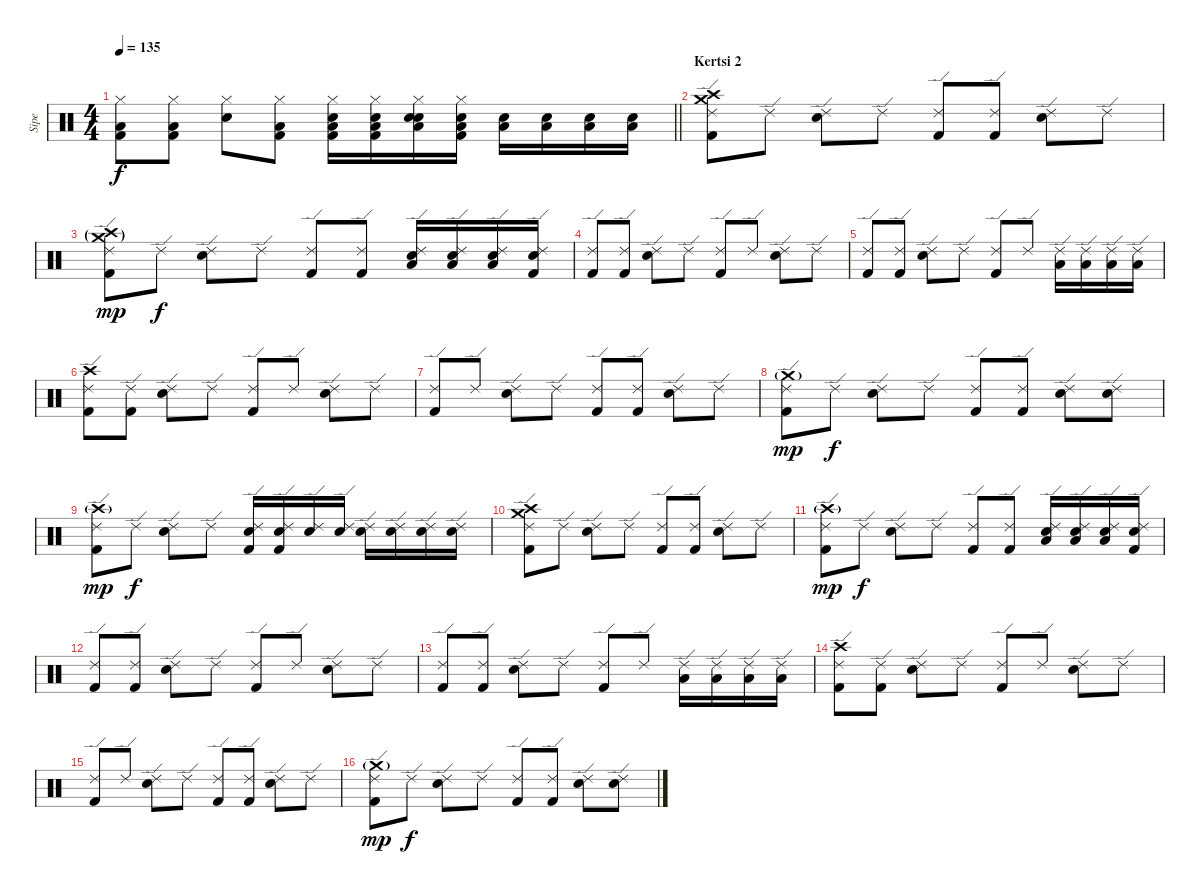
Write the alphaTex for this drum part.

\track ("Sipe" "Sipe") {instrument percussion}
\staff {score}
\articulation defaults
\ts (4 4)
\tempo 135
\clef neutral
\barLineRight lightlight
\ks c
("Low Tom (hit)" "Kick (hit) 2" "Hi-Hat (closed)").8{dy f} ("Low Tom (hit)" "Kick (hit) 2" "Hi-Hat (closed)").8 ("Snare (hit) 2" "Hi-Hat (closed)").8 ("Low Tom (hit)" "Kick (hit) 2" "Hi-Hat (closed)").8 ("Low Tom (hit)" "Kick (hit) 2" "Hi-Hat (closed)" "Snare (hit) 2").16 ("Low Tom (hit)" "Kick (hit) 2" "Hi-Hat (closed)" "Snare (hit) 2").16 ("Low Tom (hit)" "Snare (hit) 2" "Hi-Hat (closed)" "Snare (hit) 2").16 ("Low Tom (hit)" "Kick (hit) 2" "Hi-Hat (closed)" "Snare (hit) 2").16 ("Low Tom (hit)" "Snare (hit) 2").16 ("Low Tom (hit)" "Snare (hit) 2").16 ("Low Tom (hit)" "Snare (hit) 2").16 ("Low Tom (hit)" "Snare (hit) 2").16 |
\section ("" "Kertsi 2")
("Kick (hit) 2" "Ride (edge) 2" "Crash high (hit)" "Crash medium (hit)").8 "Ride (edge) 2".8 ("Snare (hit) 2" "Ride (edge) 2").8 "Ride (edge) 2".8 ("Kick (hit) 2" "Ride (edge) 2").8 ("Kick (hit) 2" "Ride (edge) 2").8 ("Snare (hit) 2" "Ride (edge) 2").8 "Ride (edge) 2".8 |
("Kick (hit) 2" "Ride (edge) 2" "Crash high (hit)"{g} "Crash medium (hit)"{g}).8{dy mp} "Ride (edge) 2".8{dy f} ("Snare (hit) 2" "Ride (edge) 2").8 "Ride (edge) 2".8 ("Kick (hit) 2" "Ride (edge) 2").8 ("Kick (hit) 2" "Ride (edge) 2").8 ("Snare (hit) 2" "Ride (edge) 2" "Low Tom (hit)").16 ("Snare (hit) 2" "Ride (edge) 2" "Low Tom (hit)").16 ("Snare (hit) 2" "Ride (edge) 2" "Low Tom (hit)").16 ("Snare (hit) 2" "Ride (edge) 2" "Kick (hit) 2").16 |
("Kick (hit) 2" "Ride (edge) 2").8 ("Kick (hit) 2" "Ride (edge) 2").8 ("Snare (hit) 2" "Ride (edge) 2").8 "Ride (edge) 2".8 ("Kick (hit) 2" "Ride (edge) 2").8 "Ride (edge) 2".8 ("Snare (hit) 2" "Ride (edge) 2").8 "Ride (edge) 2".8 |
("Kick (hit) 2" "Ride (edge) 2").8 ("Kick (hit) 2" "Ride (edge) 2").8 ("Snare (hit) 2" "Ride (edge) 2").8 "Ride (edge) 2".8 ("Kick (hit) 2" "Ride (edge) 2").8 "Ride (edge) 2".8 ("Low Tom (hit)" "Ride (edge) 2").16 ("Low Tom (hit)" "Ride (edge) 2").16 ("Low Tom (hit)" "Ride (edge) 2").16 ("Low Tom (hit)" "Ride (edge) 2").16 |
("Crash high (hit)" "Kick (hit) 2" "Ride (edge) 2").8 ("Kick (hit) 2" "Ride (edge) 2").8 ("Snare (hit) 2" "Ride (edge) 2").8 "Ride (edge) 2".8 ("Kick (hit) 2" "Ride (edge) 2").8 "Ride (edge) 2".8 ("Snare (hit) 2" "Ride (edge) 2").8 "Ride (edge) 2".8 |
("Kick (hit) 2" "Ride (edge) 2").8 "Ride (edge) 2".8 ("Snare (hit) 2" "Ride (edge) 2").8 "Ride (edge) 2".8 ("Kick (hit) 2" "Ride (edge) 2").8 ("Kick (hit) 2" "Ride (edge) 2").8 ("Snare (hit) 2" "Ride (edge) 2").8 "Ride (edge) 2".8 |
("Crash medium (hit)"{g} "Kick (hit) 2" "Ride (edge) 2").8{dy mp} "Ride (edge) 2".8{dy f} ("Snare (hit) 2" "Ride (edge) 2").8 "Ride (edge) 2".8 ("Kick (hit) 2" "Ride (edge) 2").8 ("Kick (hit) 2" "Ride (edge) 2").8 ("Snare (hit) 2" "Ride (edge) 2").8 ("Snare (hit) 2" "Ride (edge) 2").8 |
("Crash high (hit)"{g} "Kick (hit) 2" "Ride (edge) 2").8{dy mp} "Ride (edge) 2".8{dy f} ("Snare (hit) 2" "Ride (edge) 2").8 "Ride (edge) 2".8 ("Kick (hit) 2" "Ride (edge) 2" "Snare (hit) 2").16 ("Kick (hit) 2" "Ride (edge) 2" "Snare (hit) 2").16 ("Ride (edge) 2" "Snare (hit) 2").16 ("Ride (edge) 2" "Snare (hit) 2").16 ("Ride (edge) 2" "Snare (hit) 2").16 ("Ride (edge) 2" "Snare (hit) 2").16 ("Ride (edge) 2" "Snare (hit) 2").16 ("Ride (edge) 2" "Snare (hit) 2").16 |
("Kick (hit) 2" "Ride (edge) 2" "Crash high (hit)" "Crash medium (hit)").8 "Ride (edge) 2".8 ("Snare (hit) 2" "Ride (edge) 2").8 "Ride (edge) 2".8 ("Kick (hit) 2" "Ride (edge) 2").8 ("Kick (hit) 2" "Ride (edge) 2").8 ("Snare (hit) 2" "Ride (edge) 2").8 "Ride (edge) 2".8 |
("Kick (hit) 2" "Ride (edge) 2" "Crash high (hit)"{g}).8{dy mp} "Ride (edge) 2".8{dy f} ("Snare (hit) 2" "Ride (edge) 2").8 "Ride (edge) 2".8 ("Kick (hit) 2" "Ride (edge) 2").8 ("Kick (hit) 2" "Ride (edge) 2").8 ("Snare (hit) 2" "Ride (edge) 2" "Low Tom (hit)").16 ("Snare (hit) 2" "Ride (edge) 2" "Low Tom (hit)").16 ("Snare (hit) 2" "Ride (edge) 2" "Low Tom (hit)").16 ("Snare (hit) 2" "Ride (edge) 2" "Kick (hit) 2").16 |
("Kick (hit) 2" "Ride (edge) 2").8 ("Kick (hit) 2" "Ride (edge) 2").8 ("Snare (hit) 2" "Ride (edge) 2").8 "Ride (edge) 2".8 ("Kick (hit) 2" "Ride (edge) 2").8 "Ride (edge) 2".8 ("Snare (hit) 2" "Ride (edge) 2").8 "Ride (edge) 2".8 |
("Kick (hit) 2" "Ride (edge) 2").8 ("Kick (hit) 2" "Ride (edge) 2").8 ("Snare (hit) 2" "Ride (edge) 2").8 "Ride (edge) 2".8 ("Kick (hit) 2" "Ride (edge) 2").8 "Ride (edge) 2".8 ("Low Tom (hit)" "Ride (edge) 2").16 ("Low Tom (hit)" "Ride (edge) 2").16 ("Low Tom (hit)" "Ride (edge) 2").16 ("Low Tom (hit)" "Ride (edge) 2").16 |
("Crash high (hit)" "Kick (hit) 2" "Ride (edge) 2").8 ("Kick (hit) 2" "Ride (edge) 2").8 ("Snare (hit) 2" "Ride (edge) 2").8 "Ride (edge) 2".8 ("Kick (hit) 2" "Ride (edge) 2").8 "Ride (edge) 2".8 ("Snare (hit) 2" "Ride (edge) 2").8 "Ride (edge) 2".8 |
("Kick (hit) 2" "Ride (edge) 2").8 "Ride (edge) 2".8 ("Snare (hit) 2" "Ride (edge) 2").8 "Ride (edge) 2".8 ("Kick (hit) 2" "Ride (edge) 2").8 ("Kick (hit) 2" "Ride (edge) 2").8 ("Snare (hit) 2" "Ride (edge) 2").8 "Ride (edge) 2".8 |
("Crash medium (hit)"{g} "Kick (hit) 2" "Ride (edge) 2").8{dy mp} "Ride (edge) 2".8{dy f} ("Snare (hit) 2" "Ride (edge) 2").8 "Ride (edge) 2".8 ("Kick (hit) 2" "Ride (edge) 2").8 ("Kick (hit) 2" "Ride (edge) 2").8 ("Snare (hit) 2" "Ride (edge) 2").8 ("Snare (hit) 2" "Ride (edge) 2").8
